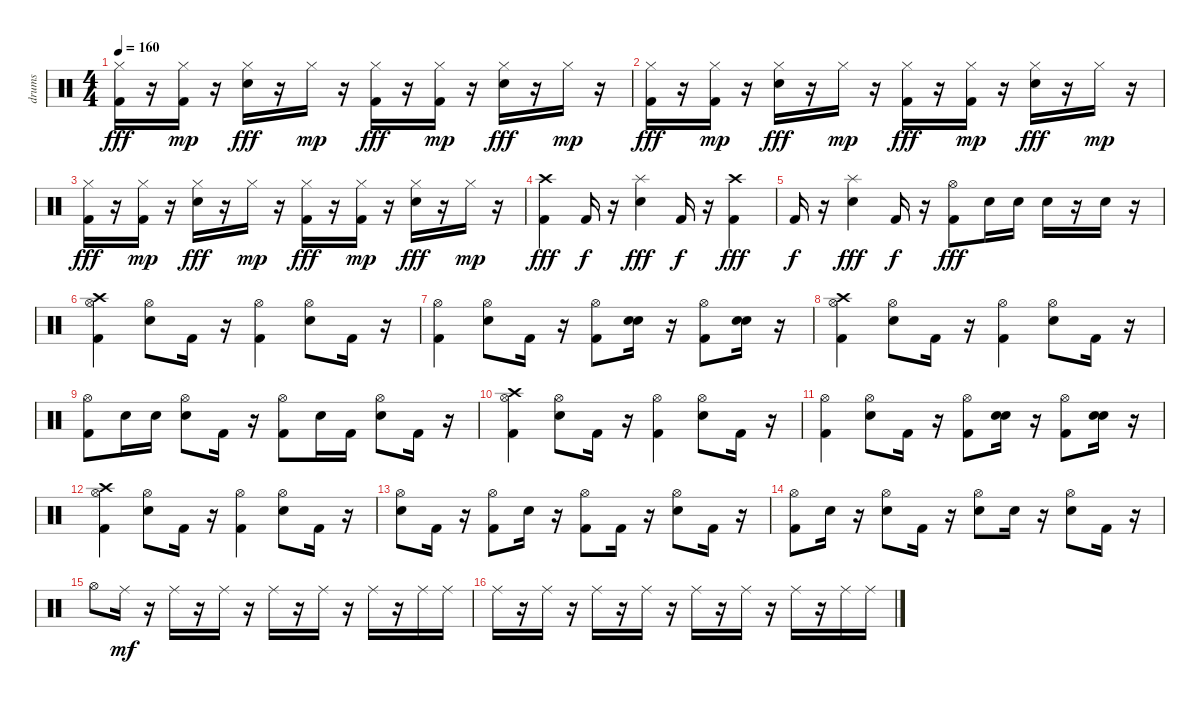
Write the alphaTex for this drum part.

\track ("drums" "drums") {instrument percussion}
\staff {score}
\articulation defaults
\ts (4 4)
\tempo 160
\clef neutral
\ks c
("Kick (hit) 2" "Hi-Hat (closed)").16{dy fff} r.16 ("Kick (hit) 2" "Hi-Hat (closed)").16{dy mp} r.16 ("Electric Snare (hit)" "Hi-Hat (closed)").16{dy fff} r.16 "Hi-Hat (closed)".16{dy mp} r.16 ("Kick (hit) 2" "Hi-Hat (closed)").16{dy fff} r.16 ("Kick (hit) 2" "Hi-Hat (closed)").16{dy mp} r.16 ("Electric Snare (hit)" "Hi-Hat (closed)").16{dy fff} r.16 "Hi-Hat (closed)".16{dy mp} r.16 |
("Kick (hit) 2" "Hi-Hat (closed)").16{dy fff} r.16 ("Kick (hit) 2" "Hi-Hat (closed)").16{dy mp} r.16 ("Electric Snare (hit)" "Hi-Hat (closed)").16{dy fff} r.16 "Hi-Hat (closed)".16{dy mp} r.16 ("Kick (hit) 2" "Hi-Hat (closed)").16{dy fff} r.16 ("Kick (hit) 2" "Hi-Hat (closed)").16{dy mp} r.16 ("Electric Snare (hit)" "Hi-Hat (closed)").16{dy fff} r.16 "Hi-Hat (closed)".16{dy mp} r.16 |
("Kick (hit) 2" "Hi-Hat (closed)").16{dy fff} r.16 ("Kick (hit) 2" "Hi-Hat (closed)").16{dy mp} r.16 ("Electric Snare (hit)" "Hi-Hat (closed)").16{dy fff} r.16 "Hi-Hat (closed)".16{dy mp} r.16 ("Kick (hit) 2" "Hi-Hat (closed)").16{dy fff} r.16 ("Kick (hit) 2" "Hi-Hat (closed)").16{dy mp} r.16 ("Electric Snare (hit)" "Hi-Hat (closed)").16{dy fff} r.16 "Hi-Hat (closed)".16{dy mp} r.16 |
("Crash high (hit)" "Kick (hit) 2").4{dy fff} "Kick (hit) 2".16{dy f} r.16 ("Electric Snare (hit)" "Splash (hit)").4{dy fff} "Kick (hit) 2".16{dy f} r.16 ("Kick (hit) 2" "Crash high (hit)").4{dy fff} |
"Kick (hit) 2".16{dy f} r.16 ("Electric Snare (hit)" "Splash (hit)").4{dy fff} "Kick (hit) 2".16{dy f} r.16 ("Kick (hit) 2" "Hi-Hat (open)").8{dy fff} "Electric Snare (hit)".16 "Electric Snare (hit)".16 "Electric Snare (hit)".16 r.16 "Snare (hit) 2".16 r.16 |
("Kick (hit) 2" "Crash high (hit)" "Hi-Hat (open)").4 ("Electric Snare (hit)" "Hi-Hat (open)").8 "Kick (hit) 2".16 r.16 ("Kick (hit) 2" "Hi-Hat (open)").4 ("Electric Snare (hit)" "Hi-Hat (open)").8 "Kick (hit) 2".16 r.16 |
("Kick (hit) 2" "Hi-Hat (open)").4 ("Electric Snare (hit)" "Hi-Hat (open)").8 "Kick (hit) 2".16 r.16 ("Kick (hit) 2" "Hi-Hat (open)").8 ("Electric Snare (hit)" "Snare (hit) 2").16 r.16 ("Kick (hit) 2" "Hi-Hat (open)").8 ("Electric Snare (hit)" "Snare (hit) 2").16 r.16 |
("Hi-Hat (open)" "Crash high (hit)" "Kick (hit) 2").4 ("Electric Snare (hit)" "Hi-Hat (open)").8 "Kick (hit) 2".16 r.16 ("Kick (hit) 2" "Hi-Hat (open)").4 ("Electric Snare (hit)" "Hi-Hat (open)").8 "Kick (hit) 2".16 r.16 |
("Hi-Hat (open)" "Kick (hit) 2").8 "Electric Snare (hit)".16 "Electric Snare (hit)".16 ("Hi-Hat (open)" "Electric Snare (hit)").8 "Kick (hit) 2".16 r.16 ("Hi-Hat (open)" "Kick (hit) 2").8 "Electric Snare (hit)".16 "Kick (hit) 2".16 ("Hi-Hat (open)" "Snare (hit) 2").8 "Kick (hit) 2".16 r.16 |
("Hi-Hat (open)" "Crash high (hit)" "Kick (hit) 2").4 ("Electric Snare (hit)" "Hi-Hat (open)").8 "Kick (hit) 2".16 r.16 ("Kick (hit) 2" "Hi-Hat (open)").4 ("Electric Snare (hit)" "Hi-Hat (open)").8 "Kick (hit) 2".16 r.16 |
("Kick (hit) 2" "Hi-Hat (open)").4 ("Electric Snare (hit)" "Hi-Hat (open)").8 "Kick (hit) 2".16 r.16 ("Kick (hit) 2" "Hi-Hat (open)").8 ("Electric Snare (hit)" "Snare (hit) 2").16 r.16 ("Kick (hit) 2" "Hi-Hat (open)").8 ("Electric Snare (hit)" "Snare (hit) 2").16 r.16 |
("Hi-Hat (open)" "Crash high (hit)" "Kick (hit) 2").4 ("Electric Snare (hit)" "Hi-Hat (open)").8 "Kick (hit) 2".16 r.16 ("Kick (hit) 2" "Hi-Hat (open)").4 ("Electric Snare (hit)" "Hi-Hat (open)").8 "Kick (hit) 2".16 r.16 |
("Hi-Hat (open)" "Electric Snare (hit)").8 "Kick (hit) 2".16 r.16 ("Hi-Hat (open)" "Kick (hit) 2").8 "Electric Snare (hit)".16 r.16 ("Hi-Hat (open)" "Kick (hit) 2").8 "Kick (hit) 2".16 r.16 ("Hi-Hat (open)" "Electric Snare (hit)").8 "Kick (hit) 2".16 r.16 |
("Hi-Hat (open)" "Kick (hit) 2").8 "Electric Snare (hit)".16 r.16 ("Hi-Hat (open)" "Electric Snare (hit)").8 "Kick (hit) 2".16 r.16 ("Hi-Hat (open)" "Electric Snare (hit)").8 "Electric Snare (hit)".16 r.16 ("Hi-Hat (open)" "Electric Snare (hit)").8 "Kick (hit) 2".16 r.16 |
"Hi-Hat (open)".8 "Ride (middle)".16{dy mf} r.16 "Ride (middle)".16 r.16 "Ride (middle)".16 r.16 "Ride (middle)".16 r.16 "Ride (middle)".16 r.16 "Ride (middle)".16 r.16 "Ride (middle)".16 "Ride (middle)".16 |
"Ride (middle)".16 r.16 "Ride (middle)".16 r.16 "Ride (middle)".16 r.16 "Ride (middle)".16 r.16 "Ride (middle)".16 r.16 "Ride (middle)".16 r.16 "Ride (middle)".16 r.16 "Ride (middle)".16 "Ride (middle)".16
